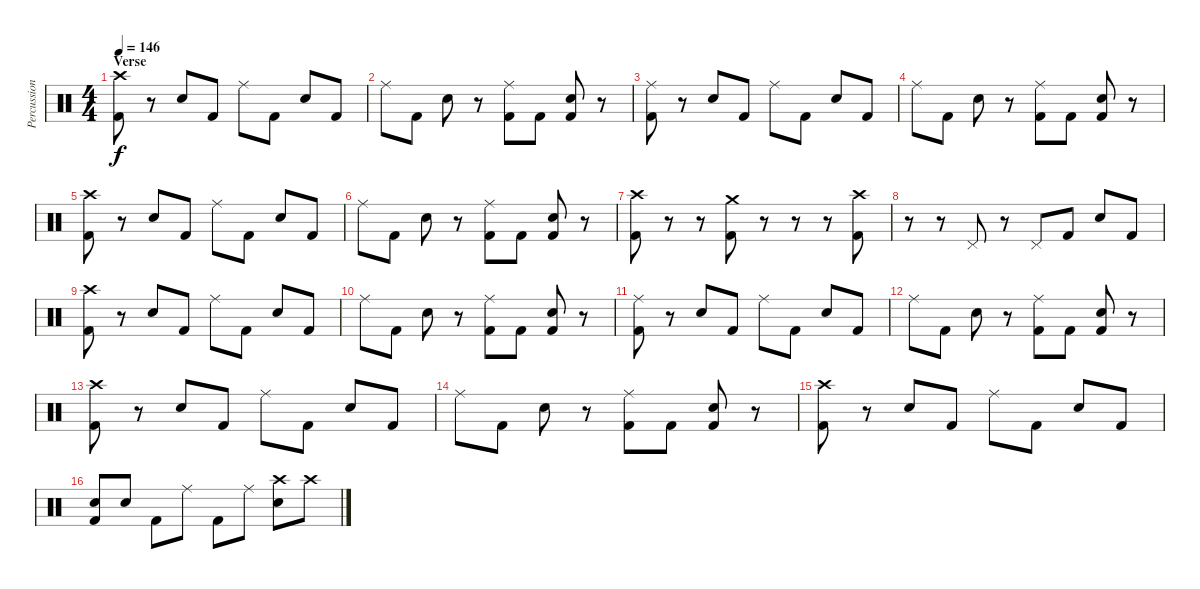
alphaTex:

\track ("Percussion" "Percussion") {instrument percussion}
\staff {score}
\articulation defaults
\ts (4 4)
\section ("" "Verse")
\tempo 146
\clef neutral
\ks c
("Crash high (hit)" "Kick (hit) 2").8{dy f} r.8 "Electric Snare (hit)".8 "Kick (hit) 2".8 "Ride (middle)".8 "Kick (hit) 2".8 "Electric Snare (hit)".8 "Kick (hit) 2".8 |
"Ride (middle)".8 "Kick (hit) 2".8 "Electric Snare (hit)".8 r.8 ("Ride (middle)" "Kick (hit) 2").8 "Kick (hit) 2".8 ("Electric Snare (hit)" "Kick (hit) 2").8 r.8 |
("Ride (middle)" "Kick (hit) 2").8 r.8 "Electric Snare (hit)".8 "Kick (hit) 2".8 "Ride (middle)".8 "Kick (hit) 2".8 "Electric Snare (hit)".8 "Kick (hit) 2".8 |
"Ride (middle)".8 "Kick (hit) 2".8 "Electric Snare (hit)".8 r.8 ("Ride (middle)" "Kick (hit) 2").8 "Kick (hit) 2".8 ("Electric Snare (hit)" "Kick (hit) 2").8 r.8 |
("Crash high (hit)" "Kick (hit) 2").8 r.8 "Electric Snare (hit)".8 "Kick (hit) 2".8 "Ride (middle)".8 "Kick (hit) 2".8 "Electric Snare (hit)".8 "Kick (hit) 2".8 |
"Ride (middle)".8 "Kick (hit) 2".8 "Electric Snare (hit)".8 r.8 ("Ride (middle)" "Kick (hit) 2").8 "Kick (hit) 2".8 ("Electric Snare (hit)" "Kick (hit) 2").8 r.8 |
("Crash high (hit)" "Kick (hit) 2").8 r.8 r.8 ("Crash medium (hit)" "Kick (hit) 2").8 r.8 r.8 r.8 ("Crash high (hit)" "Kick (hit) 2").8 |
r.8 r.8 "Pedal Hi-Hat (hit)".8 r.8 "Pedal Hi-Hat (hit)".8 "Kick (hit) 2".8 "Electric Snare (hit)".8 "Kick (hit) 2".8 |
("Crash high (hit)" "Kick (hit) 2").8 r.8 "Electric Snare (hit)".8 "Kick (hit) 2".8 "Ride (middle)".8 "Kick (hit) 2".8 "Electric Snare (hit)".8 "Kick (hit) 2".8 |
"Ride (middle)".8 "Kick (hit) 2".8 "Electric Snare (hit)".8 r.8 ("Ride (middle)" "Kick (hit) 2").8 "Kick (hit) 2".8 ("Electric Snare (hit)" "Kick (hit) 2").8 r.8 |
("Ride (middle)" "Kick (hit) 2").8 r.8 "Electric Snare (hit)".8 "Kick (hit) 2".8 "Ride (middle)".8 "Kick (hit) 2".8 "Electric Snare (hit)".8 "Kick (hit) 2".8 |
"Ride (middle)".8 "Kick (hit) 2".8 "Electric Snare (hit)".8 r.8 ("Ride (middle)" "Kick (hit) 2").8 "Kick (hit) 2".8 ("Electric Snare (hit)" "Kick (hit) 2").8 r.8 |
("Crash high (hit)" "Kick (hit) 2").8 r.8 "Electric Snare (hit)".8 "Kick (hit) 2".8 "Ride (middle)".8 "Kick (hit) 2".8 "Electric Snare (hit)".8 "Kick (hit) 2".8 |
"Ride (middle)".8 "Kick (hit) 2".8 "Electric Snare (hit)".8 r.8 ("Ride (middle)" "Kick (hit) 2").8 "Kick (hit) 2".8 ("Electric Snare (hit)" "Kick (hit) 2").8 r.8 |
("Crash high (hit)" "Kick (hit) 2").8 r.8 "Electric Snare (hit)".8 "Kick (hit) 2".8 "Ride (middle)".8 "Kick (hit) 2".8 "Electric Snare (hit)".8 "Kick (hit) 2".8 |
("Electric Snare (hit)" "Kick (hit) 2").8 "Electric Snare (hit)".8 "Kick (hit) 2".8 "Ride (middle)".8 "Kick (hit) 2".8 "Ride (middle)".8 ("Crash high (hit)" "Electric Snare (hit)").8 "Crash high (hit)".8
